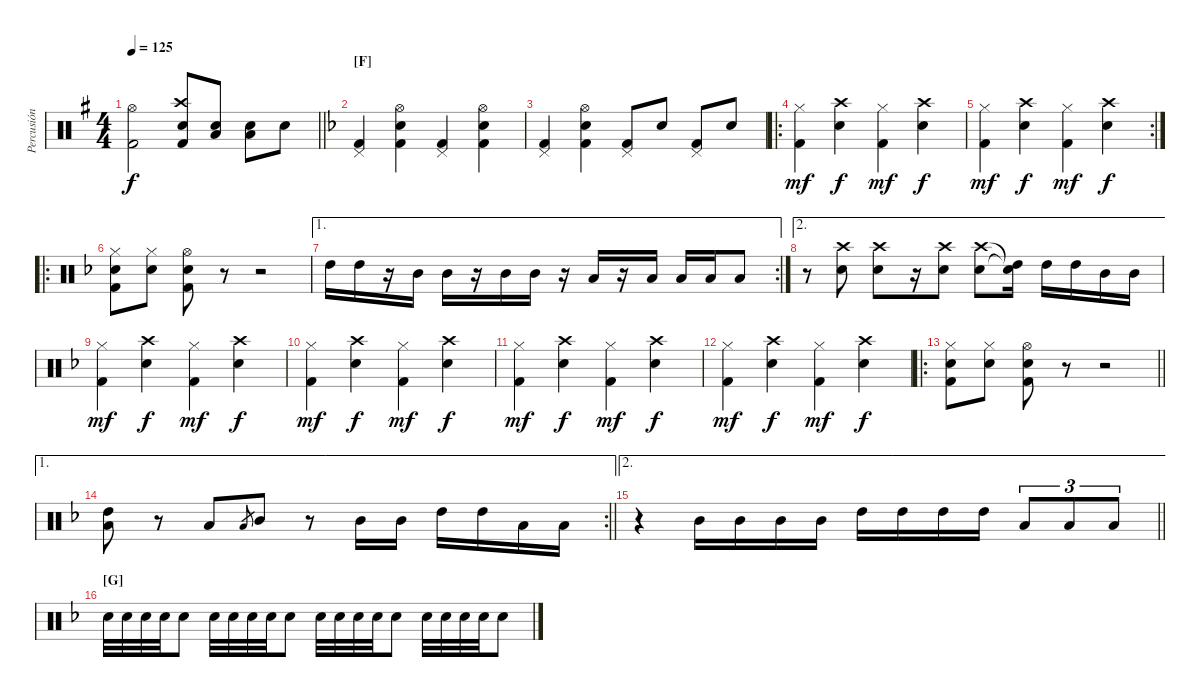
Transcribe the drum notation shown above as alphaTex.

\track ("Percusión" "Percusión") {instrument percussion}
\staff {score}
\articulation defaults
\ts (4 4)
\tempo 125
\clef neutral
\barLineRight lightlight
\ks g
("Hi-Hat (open)" "Kick (hit) 2").2{dy f} ("Crash high (hit)" "Snare (hit) 2" "Kick (hit) 2").8 ("Low Floor Tom (hit)" "Snare (hit) 2").8 ("Low Floor Tom (hit)" "Snare (hit) 2").8 "Snare (hit) 2".8 |
\section ("" "[F]")
\ks f
("Pedal Hi-Hat (hit)" "Kick (hit) 2").4 ("Hi-Hat (open)" "Snare (hit) 2" "Kick (hit) 2").4 ("Pedal Hi-Hat (hit)" "Kick (hit) 2").4 ("Hi-Hat (open)" "Snare (hit) 2" "Kick (hit) 2").4 |
("Pedal Hi-Hat (hit)" "Kick (hit) 2").4 ("Hi-Hat (open)" "Snare (hit) 2" "Kick (hit) 2").4 ("Pedal Hi-Hat (hit)" "Kick (hit) 2").8 "Snare (hit) 2".8 ("Pedal Hi-Hat (hit)" "Kick (hit) 2").8 "Snare (hit) 2".8 |
\ro
("Hi-Hat (closed)" "Kick (hit) 2").4{dy mf} ("Crash high (hit)" "Snare (hit) 2").4{dy f} ("Hi-Hat (closed)" "Kick (hit) 2").4{dy mf} ("Crash high (hit)" "Snare (hit) 2").4{dy f} |
\rc 2
("Hi-Hat (closed)" "Kick (hit) 2").4{dy mf} ("Crash high (hit)" "Snare (hit) 2").4{dy f} ("Hi-Hat (closed)" "Kick (hit) 2").4{dy mf} ("Crash high (hit)" "Snare (hit) 2").4{dy f} |
\ro
("Snare (hit) 2" "Hi-Hat (closed)" "Kick (hit) 2").8 ("Snare (hit) 2" "Hi-Hat (closed)").8 ("Hi-Hat (open)" "Snare (hit) 2" "Kick (hit) 2").8 r.8 r.2 |
\ae 1
\rc 2 "High Tom (hit)".16 "High Tom (hit)".16
r.16 "Mid Tom (hit)".16 "Mid Tom (hit)".16 r.16 "Mid Tom (hit)".16 "Mid Tom (hit)".16 r.16 "Low Floor Tom (hit)".16 r.16 "Low Floor Tom (hit)".16 "Low Floor Tom (hit)".16 "Low Floor Tom (hit)".16 "Low Floor Tom (hit)".8 |
\ae 2
r.8 ("Crash high (hit)" "Snare (hit) 2").8 ("Crash high (hit)" "Snare (hit) 2").8 r.16 ("Crash high (hit)" "Snare (hit) 2").8 ("Crash high (hit)" "Snare (hit) 2").8 ("Snare (hit)"{t} "High Tom (hit)"{t}).16 "High Tom (hit)".16 "High Tom (hit)".16 "Mid Tom (hit)".16 "Mid Tom (hit)".16 |
("Hi-Hat (closed)" "Kick (hit) 2").4{dy mf} ("Crash high (hit)" "Snare (hit) 2").4{dy f} ("Hi-Hat (closed)" "Kick (hit) 2").4{dy mf} ("Crash high (hit)" "Snare (hit) 2").4{dy f} |
("Hi-Hat (closed)" "Kick (hit) 2").4{dy mf} ("Crash high (hit)" "Snare (hit) 2").4{dy f} ("Hi-Hat (closed)" "Kick (hit) 2").4{dy mf} ("Crash high (hit)" "Snare (hit) 2").4{dy f} |
("Hi-Hat (closed)" "Kick (hit) 2").4{dy mf} ("Crash high (hit)" "Snare (hit) 2").4{dy f} ("Hi-Hat (closed)" "Kick (hit) 2").4{dy mf} ("Crash high (hit)" "Snare (hit) 2").4{dy f} |
("Hi-Hat (closed)" "Kick (hit) 2").4{dy mf} ("Crash high (hit)" "Snare (hit) 2").4{dy f} ("Hi-Hat (closed)" "Kick (hit) 2").4{dy mf} ("Crash high (hit)" "Snare (hit) 2").4{dy f} |
\ro
\barLineRight lightlight
("Snare (hit) 2" "Hi-Hat (closed)" "Kick (hit) 2").8 ("Snare (hit) 2" "Hi-Hat (closed)").8 ("Hi-Hat (open)" "Snare (hit) 2" "Kick (hit) 2").8 r.8 r.2 |
\ae 1
\rc 2
\barLineRight lightlight
("High Tom (hit)" "Low Floor Tom (hit)").8 r.8 "Low Floor Tom (hit)".8 "Low Floor Tom (hit)".8{gr} "Mid Tom (hit)".8 r.8 "Mid Tom (hit)".16 "Mid Tom (hit)".16 "High Tom (hit)".16 "High Tom (hit)".16 "Low Floor Tom (hit)".16 "Low Floor Tom (hit)".16 |
\ae 2
\barLineRight lightlight
r.4 "Mid Tom (hit)".16 "Mid Tom (hit)".16 "Mid Tom (hit)".16 "Mid Tom (hit)".16 "High Tom (hit)".16 "High Tom (hit)".16 "High Tom (hit)".16 "High Tom (hit)".16 "Low Floor Tom (hit)".8{tu (3 2)} "Low Floor Tom (hit)".8{tu (3 2)} "Low Floor Tom (hit)".8{tu (3 2)} |
\section ("" "[G]")
"Snare (hit) 2".32 "Snare (hit) 2".32 "Snare (hit) 2".32 "Snare (hit) 2".32 "Snare (hit) 2".8 "Snare (hit) 2".32 "Snare (hit) 2".32 "Snare (hit) 2".32 "Snare (hit) 2".32 "Snare (hit) 2".8 "Snare (hit) 2".32 "Snare (hit) 2".32 "Snare (hit) 2".32 "Snare (hit) 2".32 "Snare (hit) 2".8 "Snare (hit) 2".32 "Snare (hit) 2".32 "Snare (hit) 2".32 "Snare (hit) 2".32 "Snare (hit) 2".8
